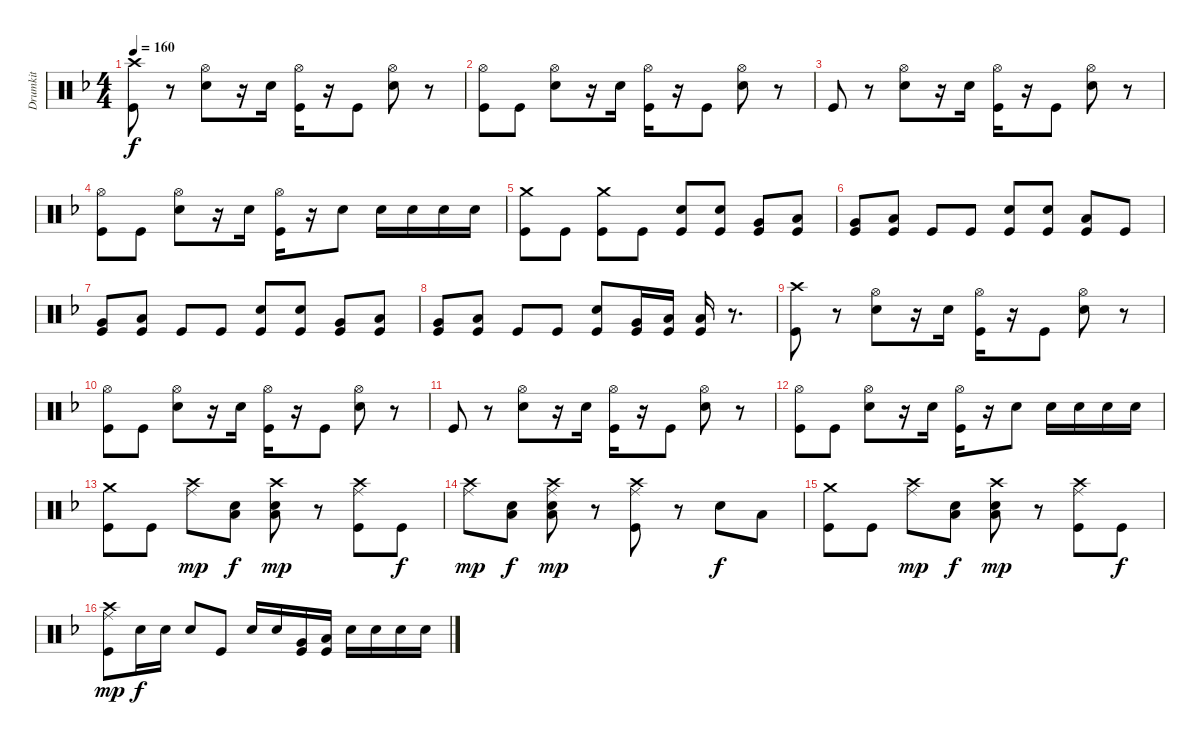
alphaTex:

\track ("Drumkit" "Drumkit") {instrument percussion}
\staff {score}
\articulation defaults
\ts (4 4)
\tempo 160
\clef neutral
\ks dminor
("Crash high (hit)" "Kick (hit)").8{dy f} r.8 ("Hi-Hat (open)" "Snare (hit) 2").8 r.16 "Snare (hit) 2".16 ("Hi-Hat (open)" "Kick (hit)").16 r.16 "Kick (hit)".8 ("Hi-Hat (open)" "Snare (hit) 2").8 r.8 |
("Hi-Hat (open)" "Kick (hit)").8 "Kick (hit)".8 ("Hi-Hat (open)" "Snare (hit) 2").8 r.16 "Snare (hit) 2".16 ("Hi-Hat (open)" "Kick (hit)").16 r.16 "Kick (hit)".8 ("Hi-Hat (open)" "Snare (hit) 2").8 r.8 |
"Kick (hit)".8 r.8 ("Hi-Hat (open)" "Snare (hit) 2").8 r.16 "Snare (hit) 2".16 ("Hi-Hat (open)" "Kick (hit)").16 r.16 "Kick (hit)".8 ("Hi-Hat (open)" "Snare (hit) 2").8 r.8 |
("Hi-Hat (open)" "Kick (hit)").8 "Kick (hit)".8 ("Hi-Hat (open)" "Snare (hit) 2").8 r.16 "Snare (hit) 2".16 ("Hi-Hat (open)" "Kick (hit)").16 r.16 "Snare (hit) 2".8 "Snare (hit) 2".16 "Snare (hit) 2".16 "Snare (hit) 2".16 "Snare (hit) 2".16 |
("Crash medium (hit)" "Kick (hit)").8 "Kick (hit)".8 ("Crash medium (hit)" "Kick (hit)").8 "Kick (hit)".8 ("Snare (hit) 2" "Kick (hit)").8 ("Snare (hit) 2" "Kick (hit)").8 ("Very Low Tom (hit)" "Kick (hit)").8 ("Low Floor Tom (hit)" "Kick (hit)").8 |
("Very Low Tom (hit)" "Kick (hit)").8 ("Low Floor Tom (hit)" "Kick (hit)").8 "Kick (hit)".8 "Kick (hit)".8 ("Snare (hit) 2" "Kick (hit)").8 ("Snare (hit) 2" "Kick (hit)").8 ("Low Floor Tom (hit)" "Kick (hit)").8 "Kick (hit)".8 |
("Very Low Tom (hit)" "Kick (hit)").8 ("Low Floor Tom (hit)" "Kick (hit)").8 "Kick (hit)".8 "Kick (hit)".8 ("Snare (hit) 2" "Kick (hit)").8 ("Snare (hit) 2" "Kick (hit)").8 ("Very Low Tom (hit)" "Kick (hit)").8 ("Low Floor Tom (hit)" "Kick (hit)").8 |
("Very Low Tom (hit)" "Kick (hit)").8 ("Low Floor Tom (hit)" "Kick (hit)").8 "Kick (hit)".8 "Kick (hit)".8 ("Snare (hit) 2" "Kick (hit)").8 ("Very Low Tom (hit)" "Kick (hit)").16 ("Low Floor Tom (hit)" "Kick (hit)").16 ("Low Floor Tom (hit)" "Kick (hit)").16 r.8{d} |
("Crash high (hit)" "Kick (hit)").8 r.8 ("Hi-Hat (open)" "Snare (hit) 2").8 r.16 "Snare (hit) 2".16 ("Hi-Hat (open)" "Kick (hit)").16 r.16 "Kick (hit)".8 ("Hi-Hat (open)" "Snare (hit) 2").8 r.8 |
("Hi-Hat (open)" "Kick (hit)").8 "Kick (hit)".8 ("Hi-Hat (open)" "Snare (hit) 2").8 r.16 "Snare (hit) 2".16 ("Hi-Hat (open)" "Kick (hit)").16 r.16 "Kick (hit)".8 ("Hi-Hat (open)" "Snare (hit) 2").8 r.8 |
"Kick (hit)".8 r.8 ("Hi-Hat (open)" "Snare (hit) 2").8 r.16 "Snare (hit) 2".16 ("Hi-Hat (open)" "Kick (hit)").16 r.16 "Kick (hit)".8 ("Hi-Hat (open)" "Snare (hit) 2").8 r.8 |
("Hi-Hat (open)" "Kick (hit)").8 "Kick (hit)".8 ("Hi-Hat (open)" "Snare (hit) 2").8 r.16 "Snare (hit) 2".16 ("Hi-Hat (open)" "Kick (hit)").16 r.16 "Snare (hit) 2".8 "Snare (hit) 2".16 "Snare (hit) 2".16 "Snare (hit) 2".16 "Snare (hit) 2".16 |
("Crash medium (hit)" "Kick (hit)").8 "Kick (hit)".8 ("Crash high (hit)" "Ride (middle)").8{dy mp} ("Snare (hit) 2" "Low Floor Tom (hit)").8{dy f} ("Crash high (hit)" "Snare (hit) 2" "Low Floor Tom (hit)").8{dy mp} r.8 ("Crash high (hit)" "Ride (middle)" "Kick (hit)").8 "Kick (hit)".8{dy f} |
("Crash high (hit)" "Ride (middle)").8{dy mp} ("Snare (hit) 2" "Low Floor Tom (hit)").8{dy f} ("Crash high (hit)" "Ride (middle)" "Snare (hit) 2" "Low Floor Tom (hit)").8{dy mp} r.8 ("Crash high (hit)" "Ride (middle)" "Kick (hit)").8 r.8 "Snare (hit) 2".8{dy f} "Low Floor Tom (hit)".8 |
("Crash medium (hit)" "Kick (hit)").8 "Kick (hit)".8 ("Crash high (hit)" "Ride (middle)").8{dy mp} ("Snare (hit) 2" "Low Floor Tom (hit)").8{dy f} ("Crash high (hit)" "Snare (hit) 2" "Low Floor Tom (hit)").8{dy mp} r.8 ("Crash high (hit)" "Ride (middle)" "Kick (hit)").8 "Kick (hit)".8{dy f} |
("Crash high (hit)" "Ride (middle)" "Kick (hit)").8{dy mp} "Snare (hit) 2".16{dy f} "Snare (hit) 2".16 "Snare (hit) 2".8 "Kick (hit)".8 "Snare (hit) 2".16 "Snare (hit) 2".16 ("Very Low Tom (hit)" "Kick (hit)").16 ("Low Floor Tom (hit)" "Kick (hit)").16 "Snare (hit) 2".16 "Snare (hit) 2".16 "Snare (hit) 2".16 "Snare (hit) 2".16
